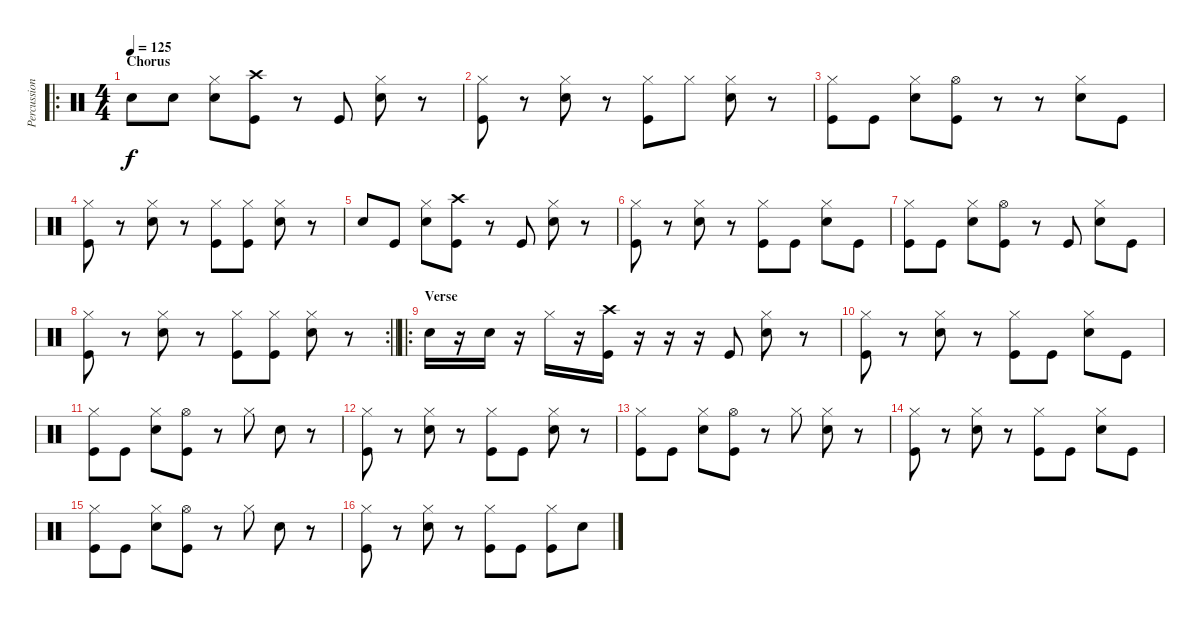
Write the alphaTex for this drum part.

\track ("Percussion" "Percussion") {instrument percussion bank 177}
\staff {score}
\articulation defaults
\ro
\ts (4 4)
\section ("" "Chorus")
\tempo 125
\clef neutral
\ks c "Snare (hit) 2".8{dy f} "Snare (hit) 2".8
("Hi-Hat (closed)" "Snare (hit) 2").8 ("Crash high (hit)" "Kick (hit)").8 r.8 "Kick (hit)".8 ("Hi-Hat (closed)" "Snare (hit) 2").8 r.8 |
("Hi-Hat (closed)" "Kick (hit)").8 r.8 ("Hi-Hat (closed)" "Snare (hit) 2").8 r.8 ("Hi-Hat (closed)" "Kick (hit)").8 "Hi-Hat (closed)".8 ("Hi-Hat (closed)" "Snare (hit) 2").8 r.8 |
("Hi-Hat (closed)" "Kick (hit)").8 "Kick (hit)".8 ("Hi-Hat (closed)" "Snare (hit) 2").8 ("Hi-Hat (open)" "Kick (hit)").8 r.8 r.8 ("Hi-Hat (closed)" "Snare (hit) 2").8 "Kick (hit)".8 |
("Hi-Hat (closed)" "Kick (hit)").8 r.8 ("Hi-Hat (closed)" "Snare (hit) 2").8 r.8 ("Hi-Hat (closed)" "Kick (hit)").8 ("Hi-Hat (closed)" "Kick (hit)").8 ("Hi-Hat (closed)" "Snare (hit) 2").8 r.8 |
"Snare (hit) 2".8 "Kick (hit)".8 ("Hi-Hat (closed)" "Snare (hit) 2").8 ("Crash high (hit)" "Kick (hit)").8 r.8 "Kick (hit)".8 ("Hi-Hat (closed)" "Snare (hit) 2").8 r.8 |
("Hi-Hat (closed)" "Kick (hit)").8 r.8 ("Hi-Hat (closed)" "Snare (hit) 2").8 r.8 ("Hi-Hat (closed)" "Kick (hit)").8 "Kick (hit)".8 ("Hi-Hat (closed)" "Snare (hit) 2").8 "Kick (hit)".8 |
("Hi-Hat (closed)" "Kick (hit)").8 "Kick (hit)".8 ("Hi-Hat (closed)" "Snare (hit) 2").8 ("Hi-Hat (open)" "Kick (hit)").8 r.8 "Kick (hit)".8 ("Hi-Hat (closed)" "Snare (hit) 2").8 "Kick (hit)".8 |
\rc 2
\barLineRight lightlight
("Hi-Hat (closed)" "Kick (hit)").8 r.8 ("Hi-Hat (closed)" "Snare (hit) 2").8 r.8 ("Hi-Hat (closed)" "Kick (hit)").8 ("Hi-Hat (closed)" "Kick (hit)").8 ("Hi-Hat (closed)" "Snare (hit) 2").8 r.8 |
\ro
\section ("" "Verse ")
"Snare (hit) 2".16 r.16 "Snare (hit) 2".16 r.16 "Hi-Hat (closed)".16 r.16 ("Crash high (hit)" "Kick (hit)").16 r.16 r.16 r.16 "Kick (hit)".8 ("Hi-Hat (closed)" "Snare (hit) 2").8 r.8 |
("Hi-Hat (closed)" "Kick (hit)").8 r.8 ("Hi-Hat (closed)" "Snare (hit) 2").8 r.8 ("Hi-Hat (closed)" "Kick (hit)").8 "Kick (hit)".8 ("Hi-Hat (closed)" "Snare (hit) 2").8 "Kick (hit)".8 |
("Hi-Hat (closed)" "Kick (hit)").8 "Kick (hit)".8 ("Hi-Hat (closed)" "Snare (hit) 2").8 ("Hi-Hat (open)" "Kick (hit)").8 r.8 "Hi-Hat (closed)".8 "Snare (hit) 2".8 r.8 |
("Hi-Hat (closed)" "Kick (hit)").8 r.8 ("Hi-Hat (closed)" "Snare (hit) 2").8 r.8 ("Hi-Hat (closed)" "Kick (hit)").8 "Kick (hit)".8 ("Hi-Hat (closed)" "Snare (hit) 2").8 r.8 |
("Hi-Hat (closed)" "Kick (hit)").8 "Kick (hit)".8 ("Hi-Hat (closed)" "Snare (hit) 2").8 ("Hi-Hat (open)" "Kick (hit)").8 r.8 "Hi-Hat (closed)".8 ("Hi-Hat (closed)" "Snare (hit) 2").8 r.8 |
("Hi-Hat (closed)" "Kick (hit)").8 r.8 ("Hi-Hat (closed)" "Snare (hit) 2").8 r.8 ("Hi-Hat (closed)" "Kick (hit)").8 "Kick (hit)".8 ("Hi-Hat (closed)" "Snare (hit) 2").8 "Kick (hit)".8 |
("Hi-Hat (closed)" "Kick (hit)").8 "Kick (hit)".8 ("Hi-Hat (closed)" "Snare (hit) 2").8 ("Hi-Hat (open)" "Kick (hit)").8 r.8 "Hi-Hat (closed)".8 "Snare (hit) 2".8 r.8 |
("Hi-Hat (closed)" "Kick (hit)").8 r.8 ("Hi-Hat (closed)" "Snare (hit) 2").8 r.8 ("Hi-Hat (closed)" "Kick (hit)").8 "Kick (hit)".8 ("Hi-Hat (closed)" "Kick (hit)").8 "Snare (hit) 2".8
